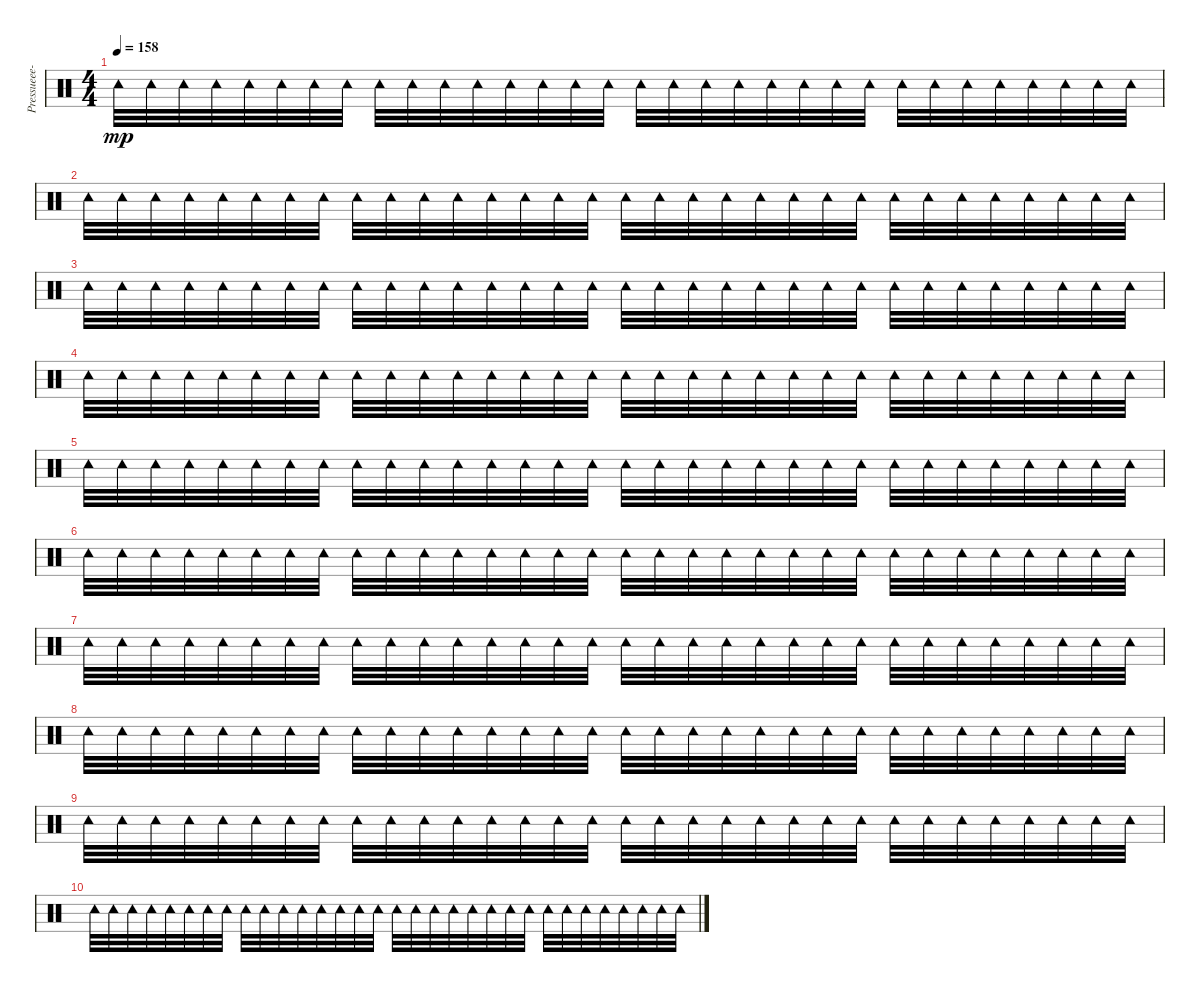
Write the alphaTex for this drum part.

\track ("" "Pressueee-") {instrument percussion}
\staff {score}
\articulation defaults
\ts (4 4)
\tempo 158
\clef neutral
\ks c "Tambourine (hit)".32{dy mp} "Tambourine (hit)".32 "Tambourine (hit)".32 "Tambourine (hit)".32 "Tambourine (hit)".32 "Tambourine (hit)".32 "Tambourine (hit)".32 "Tambourine (hit)".32 "Tambourine (hit)".32 "Tambourine (hit)".32 "Tambourine (hit)".32 "Tambourine (hit)".32 "Tambourine (hit)".32 "Tambourine (hit)".32 "Tambourine (hit)".32 "Tambourine (hit)".32 "Tambourine (hit)".32 "Tambourine (hit)".32 "Tambourine (hit)".32 "Tambourine (hit)".32 "Tambourine (hit)".32 "Tambourine (hit)".32 "Tambourine (hit)".32 "Tambourine (hit)".32 "Tambourine (hit)".32 "Tambourine (hit)".32 "Tambourine (hit)".32 "Tambourine (hit)".32 "Tambourine (hit)".32 "Tambourine (hit)".32 "Tambourine (hit)".32 "Tambourine (hit)".32
|
"Tambourine (hit)".32 "Tambourine (hit)".32 "Tambourine (hit)".32 "Tambourine (hit)".32 "Tambourine (hit)".32 "Tambourine (hit)".32 "Tambourine (hit)".32 "Tambourine (hit)".32 "Tambourine (hit)".32 "Tambourine (hit)".32 "Tambourine (hit)".32 "Tambourine (hit)".32 "Tambourine (hit)".32 "Tambourine (hit)".32 "Tambourine (hit)".32 "Tambourine (hit)".32 "Tambourine (hit)".32 "Tambourine (hit)".32 "Tambourine (hit)".32 "Tambourine (hit)".32 "Tambourine (hit)".32 "Tambourine (hit)".32 "Tambourine (hit)".32 "Tambourine (hit)".32 "Tambourine (hit)".32 "Tambourine (hit)".32 "Tambourine (hit)".32 "Tambourine (hit)".32 "Tambourine (hit)".32 "Tambourine (hit)".32 "Tambourine (hit)".32 "Tambourine (hit)".32 |
"Tambourine (hit)".32 "Tambourine (hit)".32 "Tambourine (hit)".32 "Tambourine (hit)".32 "Tambourine (hit)".32 "Tambourine (hit)".32 "Tambourine (hit)".32 "Tambourine (hit)".32 "Tambourine (hit)".32 "Tambourine (hit)".32 "Tambourine (hit)".32 "Tambourine (hit)".32 "Tambourine (hit)".32 "Tambourine (hit)".32 "Tambourine (hit)".32 "Tambourine (hit)".32 "Tambourine (hit)".32 "Tambourine (hit)".32 "Tambourine (hit)".32 "Tambourine (hit)".32 "Tambourine (hit)".32 "Tambourine (hit)".32 "Tambourine (hit)".32 "Tambourine (hit)".32 "Tambourine (hit)".32 "Tambourine (hit)".32 "Tambourine (hit)".32 "Tambourine (hit)".32 "Tambourine (hit)".32 "Tambourine (hit)".32 "Tambourine (hit)".32 "Tambourine (hit)".32 |
"Tambourine (hit)".32 "Tambourine (hit)".32 "Tambourine (hit)".32 "Tambourine (hit)".32 "Tambourine (hit)".32 "Tambourine (hit)".32 "Tambourine (hit)".32 "Tambourine (hit)".32 "Tambourine (hit)".32 "Tambourine (hit)".32 "Tambourine (hit)".32 "Tambourine (hit)".32 "Tambourine (hit)".32 "Tambourine (hit)".32 "Tambourine (hit)".32 "Tambourine (hit)".32 "Tambourine (hit)".32 "Tambourine (hit)".32 "Tambourine (hit)".32 "Tambourine (hit)".32 "Tambourine (hit)".32 "Tambourine (hit)".32 "Tambourine (hit)".32 "Tambourine (hit)".32 "Tambourine (hit)".32 "Tambourine (hit)".32 "Tambourine (hit)".32 "Tambourine (hit)".32 "Tambourine (hit)".32 "Tambourine (hit)".32 "Tambourine (hit)".32 "Tambourine (hit)".32 |
"Tambourine (hit)".32 "Tambourine (hit)".32 "Tambourine (hit)".32 "Tambourine (hit)".32 "Tambourine (hit)".32 "Tambourine (hit)".32 "Tambourine (hit)".32 "Tambourine (hit)".32 "Tambourine (hit)".32 "Tambourine (hit)".32 "Tambourine (hit)".32 "Tambourine (hit)".32 "Tambourine (hit)".32 "Tambourine (hit)".32 "Tambourine (hit)".32 "Tambourine (hit)".32 "Tambourine (hit)".32 "Tambourine (hit)".32 "Tambourine (hit)".32 "Tambourine (hit)".32 "Tambourine (hit)".32 "Tambourine (hit)".32 "Tambourine (hit)".32 "Tambourine (hit)".32 "Tambourine (hit)".32 "Tambourine (hit)".32 "Tambourine (hit)".32 "Tambourine (hit)".32 "Tambourine (hit)".32 "Tambourine (hit)".32 "Tambourine (hit)".32 "Tambourine (hit)".32 |
"Tambourine (hit)".32 "Tambourine (hit)".32 "Tambourine (hit)".32 "Tambourine (hit)".32 "Tambourine (hit)".32 "Tambourine (hit)".32 "Tambourine (hit)".32 "Tambourine (hit)".32 "Tambourine (hit)".32 "Tambourine (hit)".32 "Tambourine (hit)".32 "Tambourine (hit)".32 "Tambourine (hit)".32 "Tambourine (hit)".32 "Tambourine (hit)".32 "Tambourine (hit)".32 "Tambourine (hit)".32 "Tambourine (hit)".32 "Tambourine (hit)".32 "Tambourine (hit)".32 "Tambourine (hit)".32 "Tambourine (hit)".32 "Tambourine (hit)".32 "Tambourine (hit)".32 "Tambourine (hit)".32 "Tambourine (hit)".32 "Tambourine (hit)".32 "Tambourine (hit)".32 "Tambourine (hit)".32 "Tambourine (hit)".32 "Tambourine (hit)".32 "Tambourine (hit)".32 |
"Tambourine (hit)".32 "Tambourine (hit)".32 "Tambourine (hit)".32 "Tambourine (hit)".32 "Tambourine (hit)".32 "Tambourine (hit)".32 "Tambourine (hit)".32 "Tambourine (hit)".32 "Tambourine (hit)".32 "Tambourine (hit)".32 "Tambourine (hit)".32 "Tambourine (hit)".32 "Tambourine (hit)".32 "Tambourine (hit)".32 "Tambourine (hit)".32 "Tambourine (hit)".32 "Tambourine (hit)".32 "Tambourine (hit)".32 "Tambourine (hit)".32 "Tambourine (hit)".32 "Tambourine (hit)".32 "Tambourine (hit)".32 "Tambourine (hit)".32 "Tambourine (hit)".32 "Tambourine (hit)".32 "Tambourine (hit)".32 "Tambourine (hit)".32 "Tambourine (hit)".32 "Tambourine (hit)".32 "Tambourine (hit)".32 "Tambourine (hit)".32 "Tambourine (hit)".32 |
"Tambourine (hit)".32 "Tambourine (hit)".32 "Tambourine (hit)".32 "Tambourine (hit)".32 "Tambourine (hit)".32 "Tambourine (hit)".32 "Tambourine (hit)".32 "Tambourine (hit)".32 "Tambourine (hit)".32 "Tambourine (hit)".32 "Tambourine (hit)".32 "Tambourine (hit)".32 "Tambourine (hit)".32 "Tambourine (hit)".32 "Tambourine (hit)".32 "Tambourine (hit)".32 "Tambourine (hit)".32 "Tambourine (hit)".32 "Tambourine (hit)".32 "Tambourine (hit)".32 "Tambourine (hit)".32 "Tambourine (hit)".32 "Tambourine (hit)".32 "Tambourine (hit)".32 "Tambourine (hit)".32 "Tambourine (hit)".32 "Tambourine (hit)".32 "Tambourine (hit)".32 "Tambourine (hit)".32 "Tambourine (hit)".32 "Tambourine (hit)".32 "Tambourine (hit)".32 |
"Tambourine (hit)".32 "Tambourine (hit)".32 "Tambourine (hit)".32 "Tambourine (hit)".32 "Tambourine (hit)".32 "Tambourine (hit)".32 "Tambourine (hit)".32 "Tambourine (hit)".32 "Tambourine (hit)".32 "Tambourine (hit)".32 "Tambourine (hit)".32 "Tambourine (hit)".32 "Tambourine (hit)".32 "Tambourine (hit)".32 "Tambourine (hit)".32 "Tambourine (hit)".32 "Tambourine (hit)".32 "Tambourine (hit)".32 "Tambourine (hit)".32 "Tambourine (hit)".32 "Tambourine (hit)".32 "Tambourine (hit)".32 "Tambourine (hit)".32 "Tambourine (hit)".32 "Tambourine (hit)".32 "Tambourine (hit)".32 "Tambourine (hit)".32 "Tambourine (hit)".32 "Tambourine (hit)".32 "Tambourine (hit)".32 "Tambourine (hit)".32 "Tambourine (hit)".32 |
"Tambourine (hit)".32 "Tambourine (hit)".32 "Tambourine (hit)".32 "Tambourine (hit)".32 "Tambourine (hit)".32 "Tambourine (hit)".32 "Tambourine (hit)".32 "Tambourine (hit)".32 "Tambourine (hit)".32 "Tambourine (hit)".32 "Tambourine (hit)".32 "Tambourine (hit)".32 "Tambourine (hit)".32 "Tambourine (hit)".32 "Tambourine (hit)".32 "Tambourine (hit)".32 "Tambourine (hit)".32 "Tambourine (hit)".32 "Tambourine (hit)".32 "Tambourine (hit)".32 "Tambourine (hit)".32 "Tambourine (hit)".32 "Tambourine (hit)".32 "Tambourine (hit)".32 "Tambourine (hit)".32 "Tambourine (hit)".32 "Tambourine (hit)".32 "Tambourine (hit)".32 "Tambourine (hit)".32 "Tambourine (hit)".32 "Tambourine (hit)".32 "Tambourine (hit)".32
